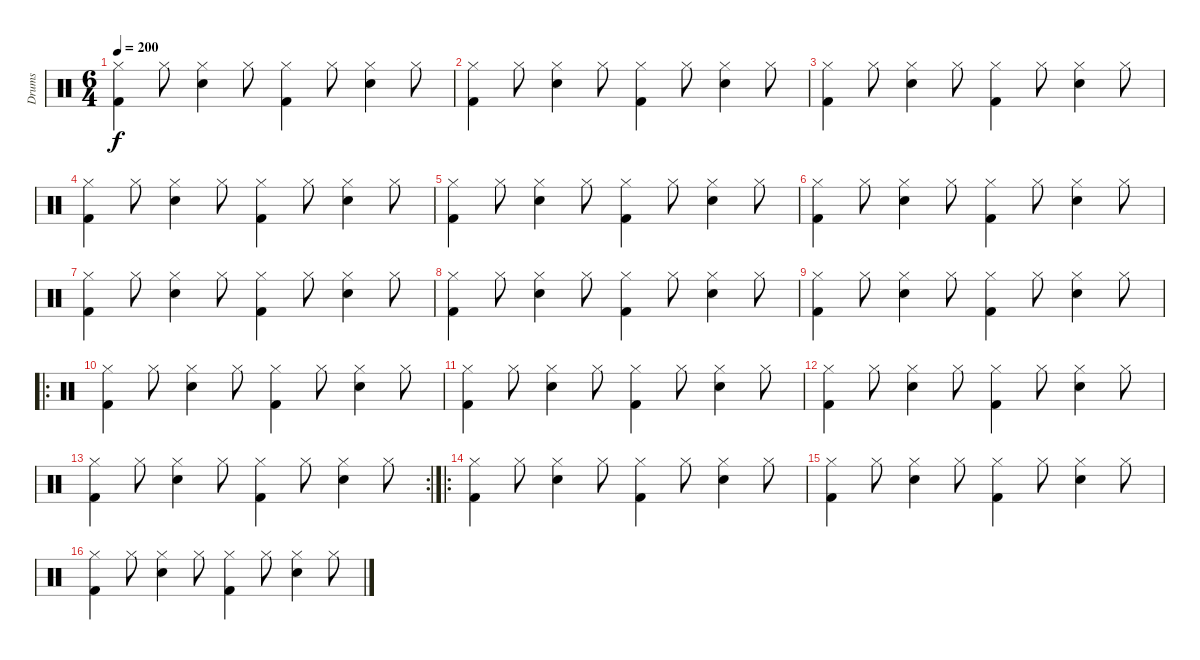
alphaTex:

\track ("Drums" "Drums") {instrument percussion}
\staff {score}
\articulation defaults
\ts (6 4)
\tempo 200
\clef neutral
\ks c
("Hi-Hat (closed)" "Kick (hit) 2").4{dy f} "Hi-Hat (closed)".8 ("Hi-Hat (closed)" "Snare (hit) 2").4 "Hi-Hat (closed)".8 ("Hi-Hat (closed)" "Kick (hit) 2").4 "Hi-Hat (closed)".8 ("Hi-Hat (closed)" "Snare (hit) 2").4 "Hi-Hat (closed)".8 |
("Hi-Hat (closed)" "Kick (hit) 2").4 "Hi-Hat (closed)".8 ("Hi-Hat (closed)" "Snare (hit) 2").4 "Hi-Hat (closed)".8 ("Hi-Hat (closed)" "Kick (hit) 2").4 "Hi-Hat (closed)".8 ("Hi-Hat (closed)" "Snare (hit) 2").4 "Hi-Hat (closed)".8 |
("Hi-Hat (closed)" "Kick (hit) 2").4 "Hi-Hat (closed)".8 ("Hi-Hat (closed)" "Snare (hit) 2").4 "Hi-Hat (closed)".8 ("Hi-Hat (closed)" "Kick (hit) 2").4 "Hi-Hat (closed)".8 ("Hi-Hat (closed)" "Snare (hit) 2").4 "Hi-Hat (closed)".8 |
("Hi-Hat (closed)" "Kick (hit) 2").4 "Hi-Hat (closed)".8 ("Hi-Hat (closed)" "Snare (hit) 2").4 "Hi-Hat (closed)".8 ("Hi-Hat (closed)" "Kick (hit) 2").4 "Hi-Hat (closed)".8 ("Hi-Hat (closed)" "Snare (hit) 2").4 "Hi-Hat (closed)".8 |
("Hi-Hat (closed)" "Kick (hit) 2").4 "Hi-Hat (closed)".8 ("Hi-Hat (closed)" "Snare (hit) 2").4 "Hi-Hat (closed)".8 ("Hi-Hat (closed)" "Kick (hit) 2").4 "Hi-Hat (closed)".8 ("Hi-Hat (closed)" "Snare (hit) 2").4 "Hi-Hat (closed)".8 |
("Hi-Hat (closed)" "Kick (hit) 2").4 "Hi-Hat (closed)".8 ("Hi-Hat (closed)" "Snare (hit) 2").4 "Hi-Hat (closed)".8 ("Hi-Hat (closed)" "Kick (hit) 2").4 "Hi-Hat (closed)".8 ("Hi-Hat (closed)" "Snare (hit) 2").4 "Hi-Hat (closed)".8 |
("Hi-Hat (closed)" "Kick (hit) 2").4 "Hi-Hat (closed)".8 ("Hi-Hat (closed)" "Snare (hit) 2").4 "Hi-Hat (closed)".8 ("Hi-Hat (closed)" "Kick (hit) 2").4 "Hi-Hat (closed)".8 ("Hi-Hat (closed)" "Snare (hit) 2").4 "Hi-Hat (closed)".8 |
("Hi-Hat (closed)" "Kick (hit) 2").4 "Hi-Hat (closed)".8 ("Hi-Hat (closed)" "Snare (hit) 2").4 "Hi-Hat (closed)".8 ("Hi-Hat (closed)" "Kick (hit) 2").4 "Hi-Hat (closed)".8 ("Hi-Hat (closed)" "Snare (hit) 2").4 "Hi-Hat (closed)".8 |
("Hi-Hat (closed)" "Kick (hit) 2").4 "Hi-Hat (closed)".8 ("Hi-Hat (closed)" "Snare (hit) 2").4 "Hi-Hat (closed)".8 ("Hi-Hat (closed)" "Kick (hit) 2").4 "Hi-Hat (closed)".8 ("Hi-Hat (closed)" "Snare (hit) 2").4 "Hi-Hat (closed)".8 |
\ro
("Hi-Hat (closed)" "Kick (hit) 2").4 "Hi-Hat (closed)".8 ("Hi-Hat (closed)" "Snare (hit) 2").4 "Hi-Hat (closed)".8 ("Hi-Hat (closed)" "Kick (hit) 2").4 "Hi-Hat (closed)".8 ("Hi-Hat (closed)" "Snare (hit) 2").4 "Hi-Hat (closed)".8 |
("Hi-Hat (closed)" "Kick (hit) 2").4 "Hi-Hat (closed)".8 ("Hi-Hat (closed)" "Snare (hit) 2").4 "Hi-Hat (closed)".8 ("Hi-Hat (closed)" "Kick (hit) 2").4 "Hi-Hat (closed)".8 ("Hi-Hat (closed)" "Snare (hit) 2").4 "Hi-Hat (closed)".8 |
("Hi-Hat (closed)" "Kick (hit) 2").4 "Hi-Hat (closed)".8 ("Hi-Hat (closed)" "Snare (hit) 2").4 "Hi-Hat (closed)".8 ("Hi-Hat (closed)" "Kick (hit) 2").4 "Hi-Hat (closed)".8 ("Hi-Hat (closed)" "Snare (hit) 2").4 "Hi-Hat (closed)".8 |
\rc 2
("Hi-Hat (closed)" "Kick (hit) 2").4 "Hi-Hat (closed)".8 ("Hi-Hat (closed)" "Snare (hit) 2").4 "Hi-Hat (closed)".8 ("Hi-Hat (closed)" "Kick (hit) 2").4 "Hi-Hat (closed)".8 ("Hi-Hat (closed)" "Snare (hit) 2").4 "Hi-Hat (closed)".8 |
\ro
("Hi-Hat (closed)" "Kick (hit) 2").4 "Hi-Hat (closed)".8 ("Hi-Hat (closed)" "Snare (hit) 2").4 "Hi-Hat (closed)".8 ("Hi-Hat (closed)" "Kick (hit) 2").4 "Hi-Hat (closed)".8 ("Hi-Hat (closed)" "Snare (hit) 2").4 "Hi-Hat (closed)".8 |
("Hi-Hat (closed)" "Kick (hit) 2").4 "Hi-Hat (closed)".8 ("Hi-Hat (closed)" "Snare (hit) 2").4 "Hi-Hat (closed)".8 ("Hi-Hat (closed)" "Kick (hit) 2").4 "Hi-Hat (closed)".8 ("Hi-Hat (closed)" "Snare (hit) 2").4 "Hi-Hat (closed)".8 |
("Hi-Hat (closed)" "Kick (hit) 2").4 "Hi-Hat (closed)".8 ("Hi-Hat (closed)" "Snare (hit) 2").4 "Hi-Hat (closed)".8 ("Hi-Hat (closed)" "Kick (hit) 2").4 "Hi-Hat (closed)".8 ("Hi-Hat (closed)" "Snare (hit) 2").4 "Hi-Hat (closed)".8
